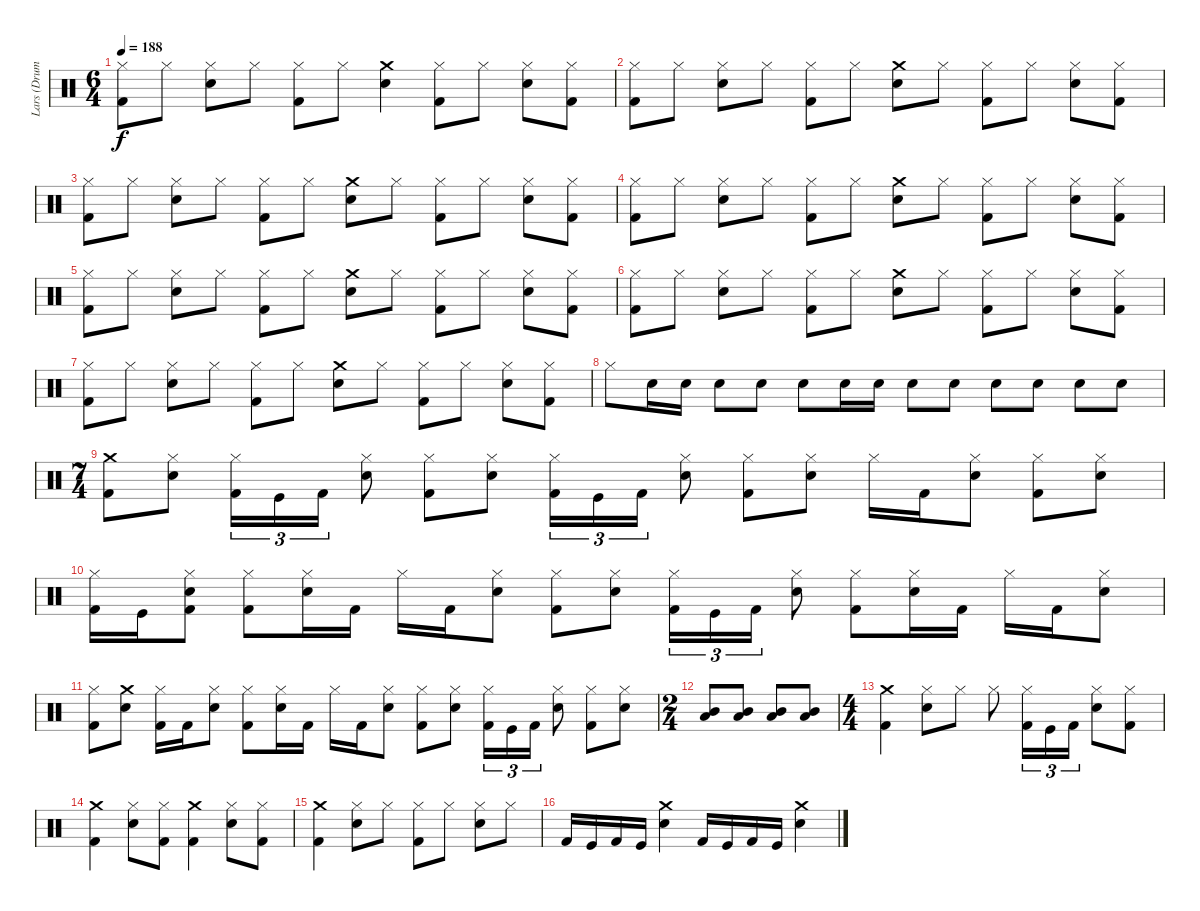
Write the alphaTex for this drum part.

\track ("Lars (Drums)" "Lars (Drum") {instrument percussion}
\staff {score}
\articulation defaults
\ts (6 4)
\tempo 188
\clef neutral
\ks c
("Hi-Hat (closed)" "Kick (hit) 2").8{dy f} "Hi-Hat (closed)".8 ("Snare (hit) 2" "Hi-Hat (closed)").8 "Hi-Hat (closed)".8 ("Hi-Hat (closed)" "Kick (hit) 2").8 "Hi-Hat (closed)".8 ("Snare (hit) 2" "Crash medium (hit)").4 ("Hi-Hat (closed)" "Kick (hit) 2").8 "Hi-Hat (closed)".8 ("Snare (hit) 2" "Hi-Hat (closed)").8 ("Kick (hit) 2" "Hi-Hat (closed)").8 |
("Hi-Hat (closed)" "Kick (hit) 2").8 "Hi-Hat (closed)".8 ("Snare (hit) 2" "Hi-Hat (closed)").8 "Hi-Hat (closed)".8 ("Hi-Hat (closed)" "Kick (hit) 2").8 "Hi-Hat (closed)".8 ("Crash medium (hit)" "Snare (hit) 2").8 "Hi-Hat (closed)".8 ("Hi-Hat (closed)" "Kick (hit) 2").8 "Hi-Hat (closed)".8 ("Snare (hit) 2" "Hi-Hat (closed)").8 ("Kick (hit) 2" "Hi-Hat (closed)").8 |
("Hi-Hat (closed)" "Kick (hit) 2").8 "Hi-Hat (closed)".8 ("Snare (hit) 2" "Hi-Hat (closed)").8 "Hi-Hat (closed)".8 ("Hi-Hat (closed)" "Kick (hit) 2").8 "Hi-Hat (closed)".8 ("Crash medium (hit)" "Snare (hit) 2").8 "Hi-Hat (closed)".8 ("Hi-Hat (closed)" "Kick (hit) 2").8 "Hi-Hat (closed)".8 ("Snare (hit) 2" "Hi-Hat (closed)").8 ("Kick (hit) 2" "Hi-Hat (closed)").8 |
("Hi-Hat (closed)" "Kick (hit) 2").8 "Hi-Hat (closed)".8 ("Snare (hit) 2" "Hi-Hat (closed)").8 "Hi-Hat (closed)".8 ("Hi-Hat (closed)" "Kick (hit) 2").8 "Hi-Hat (closed)".8 ("Crash medium (hit)" "Snare (hit) 2").8 "Hi-Hat (closed)".8 ("Hi-Hat (closed)" "Kick (hit) 2").8 "Hi-Hat (closed)".8 ("Snare (hit) 2" "Hi-Hat (closed)").8 ("Kick (hit) 2" "Hi-Hat (closed)").8 |
("Hi-Hat (closed)" "Kick (hit) 2").8 "Hi-Hat (closed)".8 ("Snare (hit) 2" "Hi-Hat (closed)").8 "Hi-Hat (closed)".8 ("Hi-Hat (closed)" "Kick (hit) 2").8 "Hi-Hat (closed)".8 ("Crash medium (hit)" "Snare (hit) 2").8 "Hi-Hat (closed)".8 ("Hi-Hat (closed)" "Kick (hit) 2").8 "Hi-Hat (closed)".8 ("Snare (hit) 2" "Hi-Hat (closed)").8 ("Kick (hit) 2" "Hi-Hat (closed)").8 |
("Hi-Hat (closed)" "Kick (hit) 2").8 "Hi-Hat (closed)".8 ("Snare (hit) 2" "Hi-Hat (closed)").8 "Hi-Hat (closed)".8 ("Hi-Hat (closed)" "Kick (hit) 2").8 "Hi-Hat (closed)".8 ("Crash medium (hit)" "Snare (hit) 2").8 "Hi-Hat (closed)".8 ("Hi-Hat (closed)" "Kick (hit) 2").8 "Hi-Hat (closed)".8 ("Snare (hit) 2" "Hi-Hat (closed)").8 ("Kick (hit) 2" "Hi-Hat (closed)").8 |
("Hi-Hat (closed)" "Kick (hit) 2").8 "Hi-Hat (closed)".8 ("Snare (hit) 2" "Hi-Hat (closed)").8 "Hi-Hat (closed)".8 ("Hi-Hat (closed)" "Kick (hit) 2").8 "Hi-Hat (closed)".8 ("Crash medium (hit)" "Snare (hit) 2").8 "Hi-Hat (closed)".8 ("Hi-Hat (closed)" "Kick (hit) 2").8 "Hi-Hat (closed)".8 ("Snare (hit) 2" "Hi-Hat (closed)").8 ("Kick (hit) 2" "Hi-Hat (closed)").8 |
"Hi-Hat (closed)".8 "Snare (hit) 2".16 "Snare (hit) 2".16 "Snare (hit) 2".8 "Snare (hit) 2".8 "Snare (hit) 2".8 "Snare (hit) 2".16 "Snare (hit) 2".16 "Snare (hit) 2".8 "Snare (hit) 2".8 "Snare (hit) 2".8 "Snare (hit) 2".8 "Snare (hit) 2".8 "Snare (hit) 2".8 |
\ts (7 4)
("Crash medium (hit)" "Kick (hit) 2").8 ("Snare (hit) 2" "Hi-Hat (closed)").8 ("Hi-Hat (closed)" "Kick (hit) 2").16{tu (3 2)} "Kick (hit)".16{tu (3 2)} "Kick (hit) 2".16{tu (3 2)} ("Snare (hit) 2" "Hi-Hat (closed)").8 ("Hi-Hat (closed)" "Kick (hit) 2").8 ("Snare (hit) 2" "Hi-Hat (closed)").8 ("Hi-Hat (closed)" "Kick (hit) 2").16{tu (3 2)} "Kick (hit)".16{tu (3 2)} "Kick (hit) 2".16{tu (3 2)} ("Snare (hit) 2" "Hi-Hat (closed)").8 ("Hi-Hat (closed)" "Kick (hit) 2").8 ("Snare (hit) 2" "Hi-Hat (closed)").8 "Hi-Hat (closed)".16 "Kick (hit) 2".16 ("Snare (hit) 2" "Hi-Hat (closed)").8 ("Hi-Hat (closed)" "Kick (hit) 2").8 ("Snare (hit) 2" "Hi-Hat (closed)").8 |
("Hi-Hat (closed)" "Kick (hit) 2").16 "Kick (hit)".16 ("Snare (hit) 2" "Hi-Hat (closed)" "Kick (hit) 2").8 ("Hi-Hat (closed)" "Kick (hit) 2").8 ("Snare (hit) 2" "Hi-Hat (closed)").16 "Kick (hit) 2".16 "Hi-Hat (closed)".16 "Kick (hit) 2".16 ("Snare (hit) 2" "Hi-Hat (closed)").8 ("Hi-Hat (closed)" "Kick (hit) 2").8 ("Snare (hit) 2" "Hi-Hat (closed)").8 ("Hi-Hat (closed)" "Kick (hit) 2").16{tu (3 2)} "Kick (hit)".16{tu (3 2)} "Kick (hit) 2".16{tu (3 2)} ("Snare (hit) 2" "Hi-Hat (closed)").8 ("Hi-Hat (closed)" "Kick (hit) 2").8 ("Snare (hit) 2" "Hi-Hat (closed)").16 "Kick (hit) 2".16 "Hi-Hat (closed)".16 "Kick (hit) 2".16 ("Snare (hit) 2" "Hi-Hat (closed)").8 |
("Kick (hit) 2" "Hi-Hat (closed)").8 ("Snare (hit) 2" "Crash medium (hit)").8 ("Hi-Hat (closed)" "Kick (hit) 2").16 "Kick (hit) 2".16 ("Snare (hit) 2" "Hi-Hat (closed)").8 ("Hi-Hat (closed)" "Kick (hit) 2").8 ("Snare (hit) 2" "Hi-Hat (closed)").16 "Kick (hit) 2".16 "Hi-Hat (closed)".16 "Kick (hit) 2".16 ("Snare (hit) 2" "Hi-Hat (closed)").8 ("Hi-Hat (closed)" "Kick (hit) 2").8 ("Snare (hit) 2" "Hi-Hat (closed)").8 ("Hi-Hat (closed)" "Kick (hit) 2").16{tu (3 2)} "Kick (hit)".16{tu (3 2)} "Kick (hit) 2".16{tu (3 2)} ("Snare (hit) 2" "Hi-Hat (closed)").8 ("Hi-Hat (closed)" "Kick (hit) 2").8 ("Snare (hit) 2" "Hi-Hat (closed)").8 |
\ts (2 4)
("Mid Tom (hit)" "Low Tom (hit)").8 ("Low Tom (hit)" "Mid Tom (hit)").8 ("Mid Tom (hit)" "Low Tom (hit)").8 ("Low Tom (hit)" "Mid Tom (hit)").8 |
\ts (4 4)
("Kick (hit) 2" "Crash medium (hit)").4 ("Hi-Hat (closed)" "Snare (hit) 2").8 "Hi-Hat (closed)".8 "Hi-Hat (closed)".8 ("Hi-Hat (closed)" "Kick (hit) 2").16{tu (3 2)} "Kick (hit)".16{tu (3 2)} "Kick (hit) 2".16{tu (3 2)} ("Snare (hit) 2" "Hi-Hat (closed)").8 ("Hi-Hat (closed)" "Kick (hit) 2").8 |
("Kick (hit) 2" "Crash medium (hit)").4 ("Hi-Hat (closed)" "Snare (hit) 2").8 ("Kick (hit) 2" "Hi-Hat (closed)").8 ("Crash medium (hit)" "Kick (hit) 2").4 ("Hi-Hat (closed)" "Snare (hit) 2").8 ("Kick (hit) 2" "Hi-Hat (closed)").8 |
("Kick (hit) 2" "Crash medium (hit)").4 ("Hi-Hat (closed)" "Snare (hit) 2").8 "Hi-Hat (closed)".8 ("Hi-Hat (closed)" "Kick (hit) 2").8 "Hi-Hat (closed)".8 ("Snare (hit) 2" "Hi-Hat (closed)").8 "Hi-Hat (closed)".8 |
"Kick (hit) 2".16 "Kick (hit)".16 "Kick (hit) 2".16 "Kick (hit)".16 ("Crash medium (hit)" "Snare (hit) 2").4 "Kick (hit) 2".16 "Kick (hit)".16 "Kick (hit) 2".16 "Kick (hit)".16 ("Snare (hit) 2" "Crash medium (hit)").4
